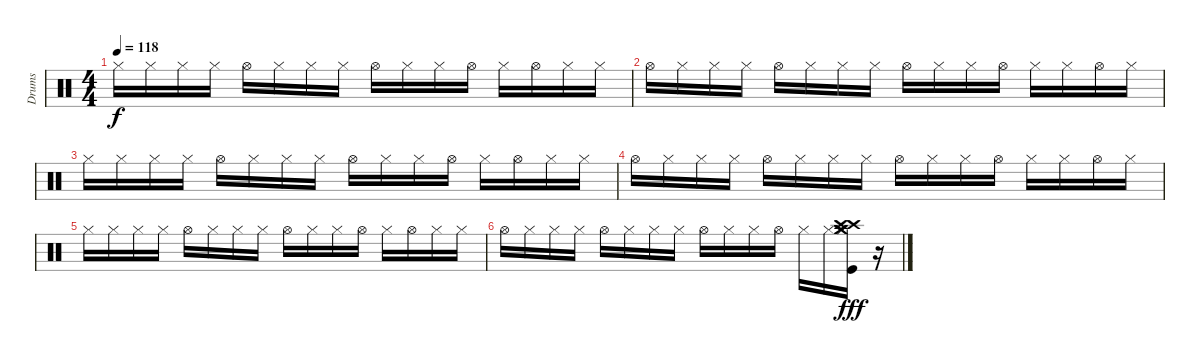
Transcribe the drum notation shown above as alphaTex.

\track ("Drums" "Drums") {instrument percussion}
\staff {score}
\articulation defaults
\ts (4 4)
\tempo 118
\clef neutral
\ks c "Hi-Hat (closed)".16{dy f} "Hi-Hat (closed)".16 "Hi-Hat (closed)".16 "Hi-Hat (closed)".16 "Hi-Hat (open)".16 "Hi-Hat (closed)".16 "Hi-Hat (closed)".16 "Hi-Hat (closed)".16 "Hi-Hat (open)".16 "Hi-Hat (closed)".16 "Hi-Hat (closed)".16 "Hi-Hat (open)".16 "Hi-Hat (closed)".16 "Hi-Hat (open)".16 "Hi-Hat (closed)".16 "Hi-Hat (closed)".16
|
"Hi-Hat (open)".16 "Hi-Hat (closed)".16 "Hi-Hat (closed)".16 "Hi-Hat (closed)".16 "Hi-Hat (open)".16 "Hi-Hat (closed)".16 "Hi-Hat (closed)".16 "Hi-Hat (closed)".16 "Hi-Hat (open)".16 "Hi-Hat (closed)".16 "Hi-Hat (closed)".16 "Hi-Hat (open)".16 "Hi-Hat (closed)".16 "Hi-Hat (closed)".16 "Hi-Hat (open)".16 "Hi-Hat (closed)".16 |
"Hi-Hat (closed)".16 "Hi-Hat (closed)".16 "Hi-Hat (closed)".16 "Hi-Hat (closed)".16 "Hi-Hat (open)".16 "Hi-Hat (closed)".16 "Hi-Hat (closed)".16 "Hi-Hat (closed)".16 "Hi-Hat (open)".16 "Hi-Hat (closed)".16 "Hi-Hat (closed)".16 "Hi-Hat (open)".16 "Hi-Hat (closed)".16 "Hi-Hat (open)".16 "Hi-Hat (closed)".16 "Hi-Hat (closed)".16 |
"Hi-Hat (open)".16 "Hi-Hat (closed)".16 "Hi-Hat (closed)".16 "Hi-Hat (closed)".16 "Hi-Hat (open)".16 "Hi-Hat (closed)".16 "Hi-Hat (closed)".16 "Hi-Hat (closed)".16 "Hi-Hat (open)".16 "Hi-Hat (closed)".16 "Hi-Hat (closed)".16 "Hi-Hat (open)".16 "Hi-Hat (closed)".16 "Hi-Hat (closed)".16 "Hi-Hat (open)".16 "Hi-Hat (closed)".16 |
"Hi-Hat (closed)".16 "Hi-Hat (closed)".16 "Hi-Hat (closed)".16 "Hi-Hat (closed)".16 "Hi-Hat (open)".16 "Hi-Hat (closed)".16 "Hi-Hat (closed)".16 "Hi-Hat (closed)".16 "Hi-Hat (open)".16 "Hi-Hat (closed)".16 "Hi-Hat (closed)".16 "Hi-Hat (open)".16 "Hi-Hat (closed)".16 "Hi-Hat (open)".16 "Hi-Hat (closed)".16 "Hi-Hat (closed)".16 |
"Hi-Hat (open)".16 "Hi-Hat (closed)".16 "Hi-Hat (closed)".16 "Hi-Hat (closed)".16 "Hi-Hat (open)".16 "Hi-Hat (closed)".16 "Hi-Hat (closed)".16 "Hi-Hat (closed)".16 "Hi-Hat (open)".16 "Hi-Hat (closed)".16 "Hi-Hat (closed)".16 "Hi-Hat (open)".16 "Hi-Hat (closed)".16 "Hi-Hat (closed)".16 ("Crash high (hit)" "Hi-Hat (closed)" "Crash medium (hit)" "Crash medium (hit)" "Crash high (hit)" "Kick (hit)").16{dy fff} r.16
